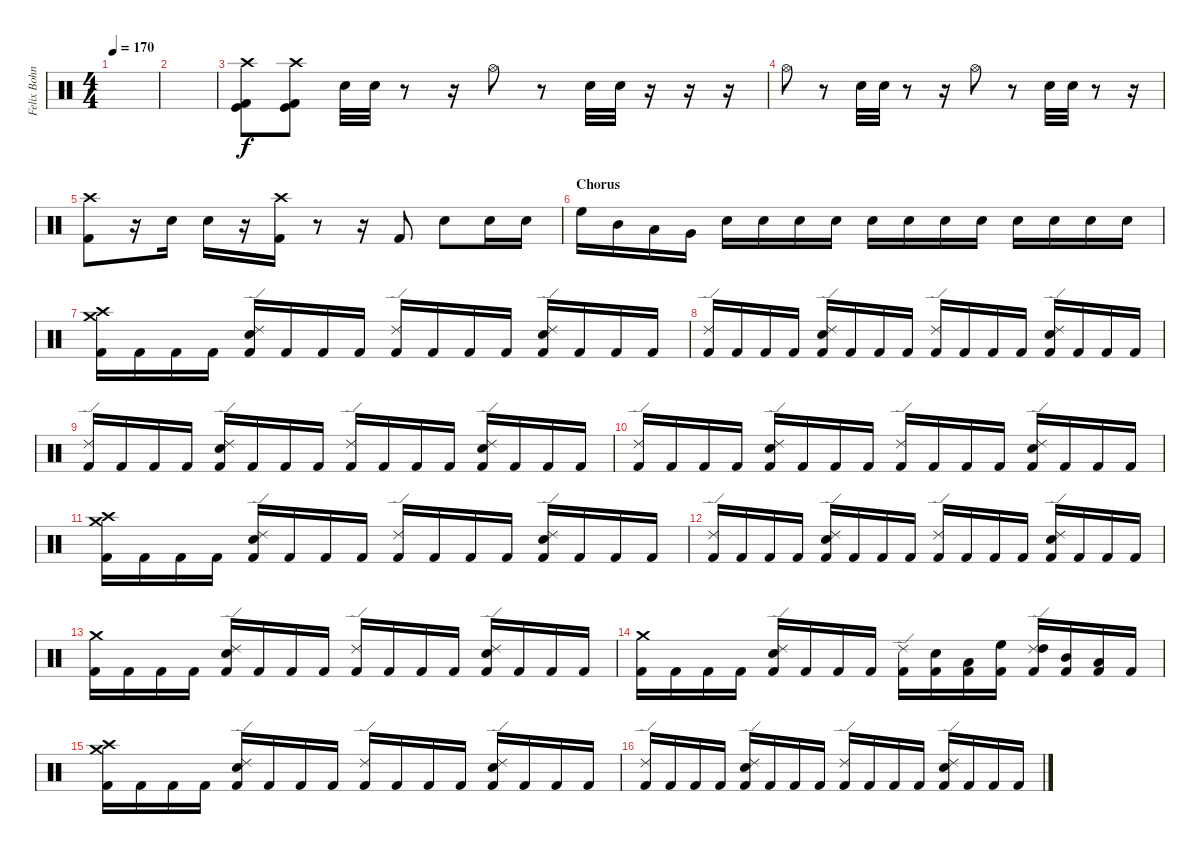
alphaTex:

\track ("Felix Bohnke" "Felix Bohn") {instrument percussion}
\staff {score}
\articulation defaults
\ts (4 4)
\tempo 170
\clef neutral
\ks c
|
|
("Crash high (hit)" "Kick (hit)" "Kick (hit) 2").8 ("Crash high (hit)" "Kick (hit)" "Kick (hit) 2").8 "Electric Snare (hit)".32 "Electric Snare (hit)".32 r.8 r.16 "Hi-Hat (open)".8 r.8 "Electric Snare (hit)".32 "Electric Snare (hit)".32 r.16 r.16 r.16 |
"Hi-Hat (open)".8 r.8 "Electric Snare (hit)".32 "Electric Snare (hit)".32 r.8 r.16 "Hi-Hat (open)".8 r.8 "Electric Snare (hit)".32 "Electric Snare (hit)".32 r.8 r.16 |
("Crash high (hit)" "Kick (hit) 2").8 r.16 "Electric Snare (hit)".16 "Electric Snare (hit)".16 r.16 ("Crash high (hit)" "Kick (hit) 2").16 r.8 r.16 "Kick (hit) 2".8 "Electric Snare (hit)".8 "Electric Snare (hit)".16 "Electric Snare (hit)".16 |
\section ("" "Chorus")
"High Floor Tom (hit)".16 "Mid Tom (hit)".16 "Low Tom (hit)".16 "Very Low Tom (hit)".16 "Electric Snare (hit)".16 "Electric Snare (hit)".16 "Electric Snare (hit)".16 "Electric Snare (hit)".16 "Electric Snare (hit)".16{volume 5} "Electric Snare (hit)".16{volume 6} "Electric Snare (hit)".16{volume 7} "Electric Snare (hit)".16{volume 8} "Electric Snare (hit)".16{volume 9} "Electric Snare (hit)".16{volume 11} "Electric Snare (hit)".16{volume 13} "Electric Snare (hit)".16{volume 16} |
("Crash high (hit)" "Crash medium (hit)" "Kick (hit) 2").16 "Kick (hit) 2".16 "Kick (hit) 2".16 "Kick (hit) 2".16 ("Ride (edge) 2" "Snare (hit) 2" "Kick (hit) 2").16 "Kick (hit) 2".16 "Kick (hit) 2".16 "Kick (hit) 2".16 ("Ride (edge) 2" "Kick (hit) 2").16 "Kick (hit) 2".16 "Kick (hit) 2".16 "Kick (hit) 2".16 ("Ride (edge) 2" "Snare (hit) 2" "Kick (hit) 2").16 "Kick (hit) 2".16 "Kick (hit) 2".16 "Kick (hit) 2".16 |
("Ride (edge) 2" "Kick (hit) 2").16 "Kick (hit) 2".16 "Kick (hit) 2".16 "Kick (hit) 2".16 ("Ride (edge) 2" "Snare (hit) 2" "Kick (hit) 2").16 "Kick (hit) 2".16 "Kick (hit) 2".16 "Kick (hit) 2".16 ("Ride (edge) 2" "Kick (hit) 2").16 "Kick (hit) 2".16 "Kick (hit) 2".16 "Kick (hit) 2".16 ("Ride (edge) 2" "Snare (hit) 2" "Kick (hit) 2").16 "Kick (hit) 2".16 "Kick (hit) 2".16 "Kick (hit) 2".16 |
("Ride (edge) 2" "Kick (hit) 2").16 "Kick (hit) 2".16 "Kick (hit) 2".16 "Kick (hit) 2".16 ("Ride (edge) 2" "Snare (hit) 2" "Kick (hit) 2").16 "Kick (hit) 2".16 "Kick (hit) 2".16 "Kick (hit) 2".16 ("Ride (edge) 2" "Kick (hit) 2").16 "Kick (hit) 2".16 "Kick (hit) 2".16 "Kick (hit) 2".16 ("Ride (edge) 2" "Snare (hit) 2" "Kick (hit) 2").16 "Kick (hit) 2".16 "Kick (hit) 2".16 "Kick (hit) 2".16 |
("Ride (edge) 2" "Kick (hit) 2").16 "Kick (hit) 2".16 "Kick (hit) 2".16 "Kick (hit) 2".16 ("Ride (edge) 2" "Snare (hit) 2" "Kick (hit) 2").16 "Kick (hit) 2".16 "Kick (hit) 2".16 "Kick (hit) 2".16 ("Ride (edge) 2" "Kick (hit) 2").16 "Kick (hit) 2".16 "Kick (hit) 2".16 "Kick (hit) 2".16 ("Ride (edge) 2" "Snare (hit) 2" "Kick (hit) 2").16 "Kick (hit) 2".16 "Kick (hit) 2".16 "Kick (hit) 2".16 |
("Crash high (hit)" "Crash medium (hit)" "Kick (hit) 2").16 "Kick (hit) 2".16 "Kick (hit) 2".16 "Kick (hit) 2".16 ("Ride (edge) 2" "Snare (hit) 2" "Kick (hit) 2").16 "Kick (hit) 2".16 "Kick (hit) 2".16 "Kick (hit) 2".16 ("Ride (edge) 2" "Kick (hit) 2").16 "Kick (hit) 2".16 "Kick (hit) 2".16 "Kick (hit) 2".16 ("Ride (edge) 2" "Snare (hit) 2" "Kick (hit) 2").16 "Kick (hit) 2".16 "Kick (hit) 2".16 "Kick (hit) 2".16 |
("Ride (edge) 2" "Kick (hit) 2").16 "Kick (hit) 2".16 "Kick (hit) 2".16 "Kick (hit) 2".16 ("Ride (edge) 2" "Snare (hit) 2" "Kick (hit) 2").16 "Kick (hit) 2".16 "Kick (hit) 2".16 "Kick (hit) 2".16 ("Ride (edge) 2" "Kick (hit) 2").16 "Kick (hit) 2".16 "Kick (hit) 2".16 "Kick (hit) 2".16 ("Ride (edge) 2" "Snare (hit) 2" "Kick (hit) 2").16 "Kick (hit) 2".16 "Kick (hit) 2".16 "Kick (hit) 2".16 |
("Crash medium (hit)" "Kick (hit) 2").16 "Kick (hit) 2".16 "Kick (hit) 2".16 "Kick (hit) 2".16 ("Ride (edge) 2" "Snare (hit) 2" "Kick (hit) 2").16 "Kick (hit) 2".16 "Kick (hit) 2".16 "Kick (hit) 2".16 ("Ride (edge) 2" "Kick (hit) 2").16 "Kick (hit) 2".16 "Kick (hit) 2".16 "Kick (hit) 2".16 ("Ride (edge) 2" "Snare (hit) 2" "Kick (hit) 2").16 "Kick (hit) 2".16 "Kick (hit) 2".16 "Kick (hit) 2".16 |
("Crash medium (hit)" "Kick (hit) 2").16 "Kick (hit) 2".16 "Kick (hit) 2".16 "Kick (hit) 2".16 ("Ride (edge) 2" "Snare (hit) 2" "Kick (hit) 2").16 "Kick (hit) 2".16 "Kick (hit) 2".16 "Kick (hit) 2".16 ("Ride (edge) 2" "Kick (hit) 2").16 ("Snare (hit) 2" "Kick (hit) 2").16 ("Low Tom (hit)" "Kick (hit) 2").16 ("High Floor Tom (hit)" "Kick (hit) 2").16 ("Ride (edge) 2" "High Tom (hit)" "Kick (hit) 2").16 ("Mid Tom (hit)" "Kick (hit) 2").16 ("Low Tom (hit)" "Kick (hit) 2").16 "Kick (hit) 2".16 |
("Crash high (hit)" "Crash medium (hit)" "Kick (hit) 2").16 "Kick (hit) 2".16 "Kick (hit) 2".16 "Kick (hit) 2".16 ("Ride (edge) 2" "Snare (hit) 2" "Kick (hit) 2").16 "Kick (hit) 2".16 "Kick (hit) 2".16 "Kick (hit) 2".16 ("Ride (edge) 2" "Kick (hit) 2").16 "Kick (hit) 2".16 "Kick (hit) 2".16 "Kick (hit) 2".16 ("Ride (edge) 2" "Snare (hit) 2" "Kick (hit) 2").16 "Kick (hit) 2".16 "Kick (hit) 2".16 "Kick (hit) 2".16 |
("Ride (edge) 2" "Kick (hit) 2").16 "Kick (hit) 2".16 "Kick (hit) 2".16 "Kick (hit) 2".16 ("Ride (edge) 2" "Snare (hit) 2" "Kick (hit) 2").16 "Kick (hit) 2".16 "Kick (hit) 2".16 "Kick (hit) 2".16 ("Ride (edge) 2" "Kick (hit) 2").16 "Kick (hit) 2".16 "Kick (hit) 2".16 "Kick (hit) 2".16 ("Ride (edge) 2" "Snare (hit) 2" "Kick (hit) 2").16 "Kick (hit) 2".16 "Kick (hit) 2".16 "Kick (hit) 2".16
